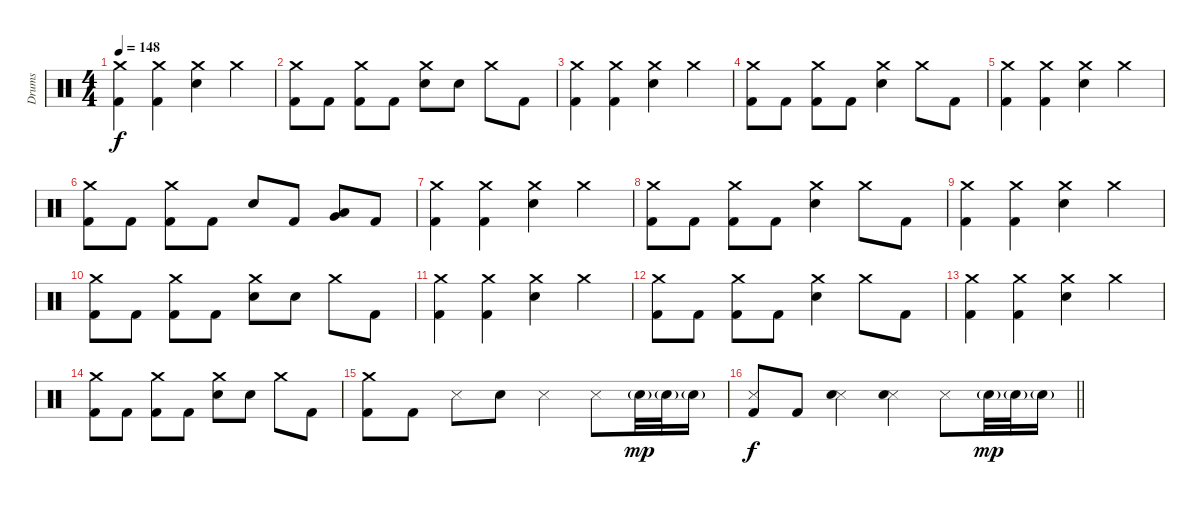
\track ("Drums" "Drums") {instrument percussion}
\staff {score}
\articulation defaults
\ts (4 4)
\tempo 148
\clef neutral
\ks c
("Crash medium (hit)" "Kick (hit) 2").4{dy f} ("Crash medium (hit)" "Kick (hit) 2").4 ("Crash medium (hit)" "Electric Snare (hit)").4 "Crash medium (hit)".4 |
("Crash medium (hit)" "Kick (hit) 2").8 "Kick (hit) 2".8 ("Crash medium (hit)" "Kick (hit) 2").8 "Kick (hit) 2".8 ("Crash medium (hit)" "Electric Snare (hit)").8 "Electric Snare (hit)".8 "Crash medium (hit)".8 "Kick (hit) 2".8 |
("Crash medium (hit)" "Kick (hit) 2").4 ("Crash medium (hit)" "Kick (hit) 2").4 ("Crash medium (hit)" "Electric Snare (hit)").4 "Crash medium (hit)".4 |
("Crash medium (hit)" "Kick (hit) 2").8 "Kick (hit) 2".8 ("Crash medium (hit)" "Kick (hit) 2").8 "Kick (hit) 2".8 ("Crash medium (hit)" "Electric Snare (hit)").4 "Crash medium (hit)".8 "Kick (hit) 2".8 |
("Crash medium (hit)" "Kick (hit) 2").4 ("Crash medium (hit)" "Kick (hit) 2").4 ("Crash medium (hit)" "Electric Snare (hit)").4 "Crash medium (hit)".4 |
("Crash medium (hit)" "Kick (hit) 2").8 "Kick (hit) 2".8 ("Crash medium (hit)" "Kick (hit) 2").8 "Kick (hit) 2".8 "Electric Snare (hit)".8 "Kick (hit) 2".8 ("Low Tom (hit)" "Very Low Tom (hit)").8 "Kick (hit) 2".8 |
("Crash medium (hit)" "Kick (hit) 2").4 ("Crash medium (hit)" "Kick (hit) 2").4 ("Crash medium (hit)" "Electric Snare (hit)").4 "Crash medium (hit)".4 |
("Crash medium (hit)" "Kick (hit) 2").8 "Kick (hit) 2".8 ("Crash medium (hit)" "Kick (hit) 2").8 "Kick (hit) 2".8 ("Crash medium (hit)" "Electric Snare (hit)").4 "Crash medium (hit)".8 "Kick (hit) 2".8 |
("Crash medium (hit)" "Kick (hit) 2").4 ("Crash medium (hit)" "Kick (hit) 2").4 ("Crash medium (hit)" "Electric Snare (hit)").4 "Crash medium (hit)".4 |
("Crash medium (hit)" "Kick (hit) 2").8 "Kick (hit) 2".8 ("Crash medium (hit)" "Kick (hit) 2").8 "Kick (hit) 2".8 ("Crash medium (hit)" "Electric Snare (hit)").8 "Electric Snare (hit)".8 "Crash medium (hit)".8 "Kick (hit) 2".8 |
("Crash medium (hit)" "Kick (hit) 2").4 ("Crash medium (hit)" "Kick (hit) 2").4 ("Crash medium (hit)" "Electric Snare (hit)").4 "Crash medium (hit)".4 |
("Crash medium (hit)" "Kick (hit) 2").8 "Kick (hit) 2".8 ("Crash medium (hit)" "Kick (hit) 2").8 "Kick (hit) 2".8 ("Crash medium (hit)" "Electric Snare (hit)").4 "Crash medium (hit)".8 "Kick (hit) 2".8 |
("Crash medium (hit)" "Kick (hit) 2").4 ("Crash medium (hit)" "Kick (hit) 2").4 ("Crash medium (hit)" "Electric Snare (hit)").4 "Crash medium (hit)".4 |
("Crash medium (hit)" "Kick (hit) 2").8 "Kick (hit) 2".8 ("Crash medium (hit)" "Kick (hit) 2").8 "Kick (hit) 2".8 ("Crash medium (hit)" "Electric Snare (hit)").8 "Electric Snare (hit)".8 "Crash medium (hit)".8 "Kick (hit) 2".8 |
("Crash medium (hit)" "Kick (hit) 2").8 "Kick (hit) 2".8 "Snare (side stick) 3".8 "Electric Snare (hit)".8 "Snare (side stick) 3".4 "Snare (side stick) 3".8 "Electric Snare (hit)"{g}.32{dy mp} "Electric Snare (hit)"{g}.32 "Electric Snare (hit)"{g}.16 |
\barLineRight lightlight
("Snare (side stick) 3" "Kick (hit) 2").8{dy f} "Kick (hit) 2".8 ("Snare (side stick) 3" "Electric Snare (hit)").4 ("Snare (side stick) 3" "Electric Snare (hit)").4 "Snare (side stick) 3".8 "Electric Snare (hit)"{g}.32{dy mp} "Electric Snare (hit)"{g}.32 "Electric Snare (hit)"{g}.16
